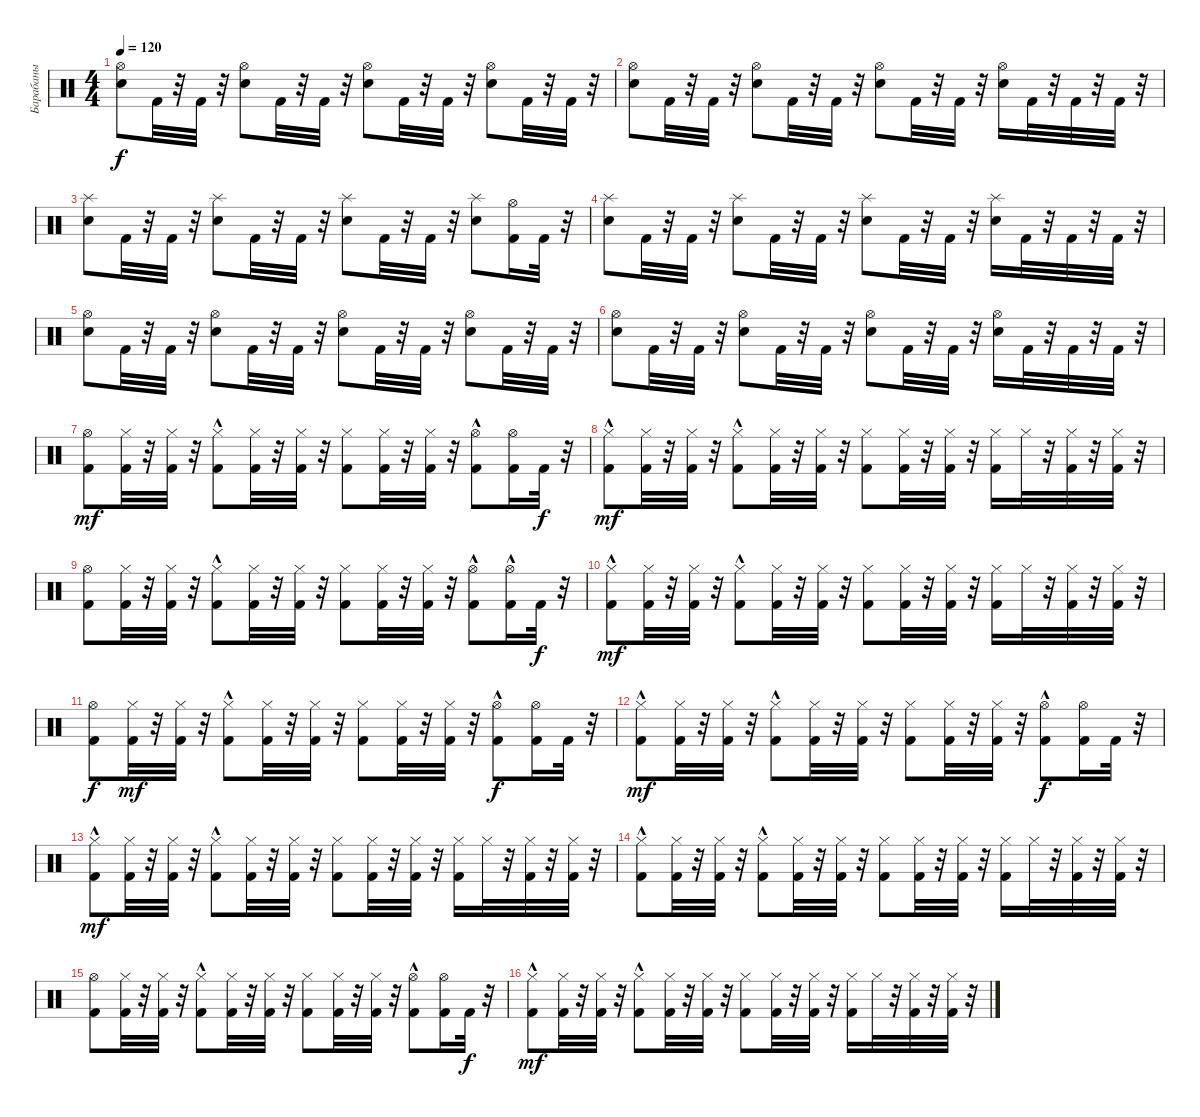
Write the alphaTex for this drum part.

\track ("Барабаны" "Барабаны") {instrument percussion}
\staff {score}
\articulation defaults
\ts (4 4)
\tempo 120
\clef neutral
\ks c
("Snare (hit) 2" "Hi-Hat (open)").8{dy f} "Kick (hit) 2".32 r.32 "Kick (hit) 2".32 r.32 ("Snare (hit) 2" "Hi-Hat (open)").8 "Kick (hit) 2".32 r.32 "Kick (hit) 2".32 r.32 ("Snare (hit) 2" "Hi-Hat (open)").8 "Kick (hit) 2".32 r.32 "Kick (hit) 2".32 r.32 ("Snare (hit) 2" "Hi-Hat (open)").8 "Kick (hit) 2".32 r.32 "Kick (hit) 2".32 r.32 |
("Hi-Hat (open)" "Snare (hit) 2").8 "Kick (hit) 2".32 r.32 "Kick (hit) 2".32 r.32 ("Snare (hit) 2" "Hi-Hat (open)").8 "Kick (hit) 2".32 r.32 "Kick (hit) 2".32 r.32 ("Snare (hit) 2" "Hi-Hat (open)").8 "Kick (hit) 2".32 r.32 "Kick (hit) 2".32 r.32 ("Snare (hit) 2" "Hi-Hat (open)").16 "Kick (hit) 2".32 r.32 "Kick (hit) 2".32 r.32 "Kick (hit) 2".32 r.32 |
("Snare (hit) 2" "Splash (hit)").8 "Kick (hit) 2".32 r.32 "Kick (hit) 2".32 r.32 ("Snare (hit) 2" "Splash (hit)").8 "Kick (hit) 2".32 r.32 "Kick (hit) 2".32 r.32 ("Snare (hit) 2" "Splash (hit)").8 "Kick (hit) 2".32 r.32 "Kick (hit) 2".32 r.32 ("Snare (hit) 2" "Splash (hit)").8 ("Hi-Hat (open)" "Kick (hit) 2").16 "Kick (hit) 2".32 r.32 |
("Snare (hit) 2" "Splash (hit)").8 "Kick (hit) 2".32 r.32 "Kick (hit) 2".32 r.32 ("Snare (hit) 2" "Splash (hit)").8 "Kick (hit) 2".32 r.32 "Kick (hit) 2".32 r.32 ("Snare (hit) 2" "Splash (hit)").8 "Kick (hit) 2".32 r.32 "Kick (hit) 2".32 r.32 ("Snare (hit) 2" "Splash (hit)").16 "Kick (hit) 2".32 r.32 "Kick (hit) 2".32 r.32 "Kick (hit) 2".32 r.32 |
("Snare (hit) 2" "Hi-Hat (open)").8 "Kick (hit) 2".32 r.32 "Kick (hit) 2".32 r.32 ("Snare (hit) 2" "Hi-Hat (open)").8 "Kick (hit) 2".32 r.32 "Kick (hit) 2".32 r.32 ("Snare (hit) 2" "Hi-Hat (open)").8 "Kick (hit) 2".32 r.32 "Kick (hit) 2".32 r.32 ("Snare (hit) 2" "Hi-Hat (open)").8 "Kick (hit) 2".32 r.32 "Kick (hit) 2".32 r.32 |
("Snare (hit) 2" "Hi-Hat (open)").8 "Kick (hit) 2".32 r.32 "Kick (hit) 2".32 r.32 ("Snare (hit) 2" "Hi-Hat (open)").8 "Kick (hit) 2".32 r.32 "Kick (hit) 2".32 r.32 ("Snare (hit) 2" "Hi-Hat (open)").8 "Kick (hit) 2".32 r.32 "Kick (hit) 2".32 r.32 ("Snare (hit) 2" "Hi-Hat (open)").16 "Kick (hit) 2".32 r.32 "Kick (hit) 2".32 r.32 "Kick (hit) 2".32 r.32 |
("Kick (hit) 2" "Hi-Hat (open)").8{dy mf} ("Hi-Hat (closed)" "Kick (hit) 2").32 r.32 ("Hi-Hat (closed)" "Kick (hit) 2").32 r.32 ("Hi-Hat (closed)"{hac} "Kick (hit) 2").8 ("Hi-Hat (closed)" "Kick (hit) 2").32 r.32 ("Hi-Hat (closed)" "Kick (hit) 2").32 r.32 ("Hi-Hat (closed)" "Kick (hit) 2").8 ("Hi-Hat (closed)" "Kick (hit) 2").32 r.32 ("Kick (hit) 2" "Hi-Hat (closed)").32 r.32 ("Hi-Hat (open)"{hac} "Kick (hit) 2").8 ("Hi-Hat (open)" "Kick (hit) 2").16 "Kick (hit) 2".32{dy f} r.32 |
("Hi-Hat (closed)"{hac} "Kick (hit) 2").8{dy mf} ("Hi-Hat (closed)" "Kick (hit) 2").32 r.32 ("Hi-Hat (closed)" "Kick (hit) 2").32 r.32 ("Hi-Hat (closed)"{hac} "Kick (hit) 2").8 ("Hi-Hat (closed)" "Kick (hit) 2").32 r.32 ("Hi-Hat (closed)" "Kick (hit) 2").32 r.32 ("Hi-Hat (closed)" "Kick (hit) 2").8 ("Hi-Hat (closed)" "Kick (hit) 2").32 r.32 ("Hi-Hat (closed)" "Kick (hit) 2").32 r.32 ("Hi-Hat (closed)" "Kick (hit) 2").16 "Hi-Hat (closed)".32 r.32 ("Hi-Hat (closed)" "Kick (hit) 2").32 r.32 ("Hi-Hat (closed)" "Kick (hit) 2").32 r.32 |
("Kick (hit) 2" "Hi-Hat (open)").8 ("Hi-Hat (closed)" "Kick (hit) 2").32 r.32 ("Hi-Hat (closed)" "Kick (hit) 2").32 r.32 ("Hi-Hat (closed)"{hac} "Kick (hit) 2").8 ("Hi-Hat (closed)" "Kick (hit) 2").32 r.32 ("Hi-Hat (closed)" "Kick (hit) 2").32 r.32 ("Hi-Hat (closed)" "Kick (hit) 2").8 ("Hi-Hat (closed)" "Kick (hit) 2").32 r.32 ("Hi-Hat (closed)" "Kick (hit) 2").32 r.32 ("Hi-Hat (open)"{hac} "Kick (hit) 2").8 ("Hi-Hat (open)"{hac} "Kick (hit) 2").16 "Kick (hit) 2".32{dy f} r.32 |
("Hi-Hat (closed)"{hac} "Kick (hit) 2").8{dy mf} ("Hi-Hat (closed)" "Kick (hit) 2").32 r.32 ("Hi-Hat (closed)" "Kick (hit) 2").32 r.32 ("Hi-Hat (closed)"{hac} "Kick (hit) 2").8 ("Hi-Hat (closed)" "Kick (hit) 2").32 r.32 ("Hi-Hat (closed)" "Kick (hit) 2").32 r.32 ("Hi-Hat (closed)" "Kick (hit) 2").8 ("Hi-Hat (closed)" "Kick (hit) 2").32 r.32 ("Hi-Hat (closed)" "Kick (hit) 2").32 r.32 ("Hi-Hat (closed)" "Kick (hit) 2").16 "Hi-Hat (closed)".32 r.32 ("Hi-Hat (closed)" "Kick (hit) 2").32 r.32 ("Hi-Hat (closed)" "Kick (hit) 2").32 r.32 |
("Hi-Hat (open)" "Kick (hit) 2").8{dy f} ("Hi-Hat (closed)" "Kick (hit) 2").32{dy mf} r.32 ("Hi-Hat (closed)" "Kick (hit) 2").32 r.32 ("Hi-Hat (closed)"{hac} "Kick (hit) 2").8 ("Hi-Hat (closed)" "Kick (hit) 2").32 r.32 ("Hi-Hat (closed)" "Kick (hit) 2").32 r.32 ("Hi-Hat (closed)" "Kick (hit) 2").8 ("Hi-Hat (closed)" "Kick (hit) 2").32 r.32 ("Hi-Hat (closed)" "Kick (hit) 2").32 r.32 ("Hi-Hat (open)"{hac} "Kick (hit) 2").8{dy f} ("Hi-Hat (open)" "Kick (hit) 2").16 "Kick (hit) 2".32 r.32 |
("Hi-Hat (closed)"{hac} "Kick (hit) 2").8{dy mf} ("Hi-Hat (closed)" "Kick (hit) 2").32 r.32 ("Hi-Hat (closed)" "Kick (hit) 2").32 r.32 ("Hi-Hat (closed)"{hac} "Kick (hit) 2").8 ("Hi-Hat (closed)" "Kick (hit) 2").32 r.32 ("Hi-Hat (closed)" "Kick (hit) 2").32 r.32 ("Hi-Hat (closed)" "Kick (hit) 2").8 ("Hi-Hat (closed)" "Kick (hit) 2").32 r.32 ("Hi-Hat (closed)" "Kick (hit) 2").32 r.32 ("Hi-Hat (open)"{hac} "Kick (hit) 2").8{dy f} ("Hi-Hat (open)" "Kick (hit) 2").16 "Kick (hit) 2".32 r.32 |
("Hi-Hat (closed)"{hac} "Kick (hit) 2").8{dy mf} ("Hi-Hat (closed)" "Kick (hit) 2").32 r.32 ("Hi-Hat (closed)" "Kick (hit) 2").32 r.32 ("Hi-Hat (closed)"{hac} "Kick (hit) 2").8 ("Hi-Hat (closed)" "Kick (hit) 2").32 r.32 ("Hi-Hat (closed)" "Kick (hit) 2").32 r.32 ("Hi-Hat (closed)" "Kick (hit) 2").8 ("Hi-Hat (closed)" "Kick (hit) 2").32 r.32 ("Hi-Hat (closed)" "Kick (hit) 2").32 r.32 ("Hi-Hat (closed)" "Kick (hit) 2").16 "Hi-Hat (closed)".32 r.32 ("Hi-Hat (closed)" "Kick (hit) 2").32 r.32 ("Hi-Hat (closed)" "Kick (hit) 2").32 r.32 |
("Hi-Hat (closed)"{hac} "Kick (hit) 2").8 ("Hi-Hat (closed)" "Kick (hit) 2").32 r.32 ("Hi-Hat (closed)" "Kick (hit) 2").32 r.32 ("Hi-Hat (closed)"{hac} "Kick (hit) 2").8 ("Hi-Hat (closed)" "Kick (hit) 2").32 r.32 ("Hi-Hat (closed)" "Kick (hit) 2").32 r.32 ("Hi-Hat (closed)" "Kick (hit) 2").8 ("Hi-Hat (closed)" "Kick (hit) 2").32 r.32 ("Hi-Hat (closed)" "Kick (hit) 2").32 r.32 ("Hi-Hat (closed)" "Kick (hit) 2").16 "Hi-Hat (closed)".32 r.32 ("Hi-Hat (closed)" "Kick (hit) 2").32 r.32 ("Hi-Hat (closed)" "Kick (hit) 2").32 r.32 |
("Kick (hit) 2" "Hi-Hat (open)").8 ("Hi-Hat (closed)" "Kick (hit) 2").32 r.32 ("Hi-Hat (closed)" "Kick (hit) 2").32 r.32 ("Hi-Hat (closed)"{hac} "Kick (hit) 2").8 ("Hi-Hat (closed)" "Kick (hit) 2").32 r.32 ("Hi-Hat (closed)" "Kick (hit) 2").32 r.32 ("Hi-Hat (closed)" "Kick (hit) 2").8 ("Hi-Hat (closed)" "Kick (hit) 2").32 r.32 ("Kick (hit) 2" "Hi-Hat (closed)").32 r.32 ("Hi-Hat (open)"{hac} "Kick (hit) 2").8 ("Hi-Hat (open)" "Kick (hit) 2").16 "Kick (hit) 2".32{dy f} r.32 |
("Hi-Hat (closed)"{hac} "Kick (hit) 2").8{dy mf} ("Hi-Hat (closed)" "Kick (hit) 2").32 r.32 ("Hi-Hat (closed)" "Kick (hit) 2").32 r.32 ("Hi-Hat (closed)"{hac} "Kick (hit) 2").8 ("Hi-Hat (closed)" "Kick (hit) 2").32 r.32 ("Hi-Hat (closed)" "Kick (hit) 2").32 r.32 ("Hi-Hat (closed)" "Kick (hit) 2").8 ("Hi-Hat (closed)" "Kick (hit) 2").32 r.32 ("Hi-Hat (closed)" "Kick (hit) 2").32 r.32 ("Hi-Hat (closed)" "Kick (hit) 2").16 "Hi-Hat (closed)".32 r.32 ("Hi-Hat (closed)" "Kick (hit) 2").32 r.32 ("Hi-Hat (closed)" "Kick (hit) 2").32 r.32
